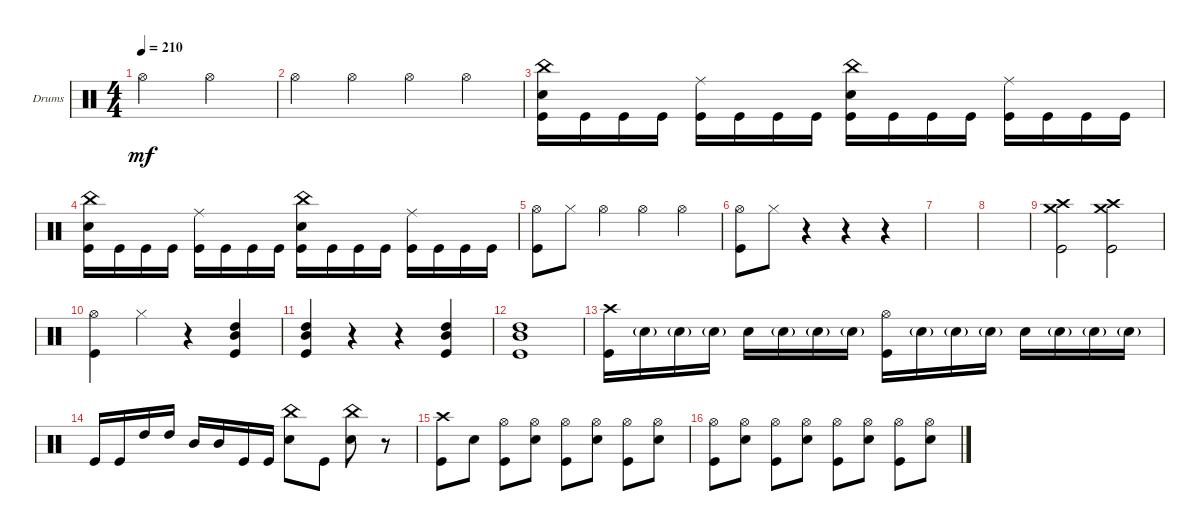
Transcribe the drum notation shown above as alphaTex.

\bracketExtendMode groupsimilarinstruments
\firstSystemTrackNameOrientation horizontal
\otherSystemsTrackNameOrientation horizontal
\track ("Drumkit" "Drums") {instrument percussion}
\staff {score}
\articulation defaults
\ts (4 4)
\tempo 210
\clef neutral
\ks c "Hi-Hat (open)".2{dy mf} "Hi-Hat (open)".2
|
"Hi-Hat (open)".4 "Hi-Hat (open)".4 "Hi-Hat (open)".4 "Hi-Hat (open)".4 |
("Snare (hit) 2" "Kick (hit)" "China (hit)").16 "Kick (hit)".16 "Kick (hit)".16 "Kick (hit)".16 ("Kick (hit)" "Ride (middle)").16 "Kick (hit)".16 "Kick (hit)".16 "Kick (hit)".16 ("Kick (hit)" "Snare (hit) 2" "China (hit)").16 "Kick (hit)".16 "Kick (hit)".16 "Kick (hit)".16 ("Kick (hit)" "Ride (middle)").16 "Kick (hit)".16 "Kick (hit)".16 "Kick (hit)".16 |
("Snare (hit) 2" "Kick (hit)" "China (hit)").16 "Kick (hit)".16 "Kick (hit)".16 "Kick (hit)".16 ("Kick (hit)" "Ride (middle)").16 "Kick (hit)".16 "Kick (hit)".16 "Kick (hit)".16 ("Kick (hit)" "Snare (hit) 2" "China (hit)").16 "Kick (hit)".16 "Kick (hit)".16 "Kick (hit)".16 ("Kick (hit)" "Ride (middle)").16 "Kick (hit)".16 "Kick (hit)".16 "Kick (hit)".16 |
("Kick (hit)" "Hi-Hat (open)").8 "Hi-Hat (closed)".8 "Hi-Hat (open)".4 "Hi-Hat (open)".4 "Hi-Hat (open)".4 |
("Kick (hit)" "Hi-Hat (open)").8 "Hi-Hat (closed)".8 r.4 r.4 r.4 |
|
|
("Kick (hit)" "Crash medium (hit)" "Crash high (hit)").2 ("Kick (hit)" "Crash high (hit)" "Crash medium (hit)").2 |
("Kick (hit)" "Hi-Hat (open)").4 "Hi-Hat (closed)".4 r.4 ("Kick (hit)" "Mid Tom (hit)" "High Tom (hit)").4 |
("Kick (hit)" "High Tom (hit)" "Mid Tom (hit)").4 r.4 r.4 ("Kick (hit)" "Mid Tom (hit)" "High Tom (hit)").4 |
("Kick (hit)" "High Tom (hit)" "Mid Tom (hit)").1 |
("Kick (hit)" "Crash high (hit)").16 "Snare (hit) 2"{g}.16 "Snare (hit) 2"{g}.16 "Snare (hit) 2"{g}.16 "Snare (hit) 2".16 "Snare (hit) 2"{g}.16 "Snare (hit) 2"{g}.16 "Snare (hit) 2"{g}.16 ("Kick (hit)" "Hi-Hat (open)").16 "Snare (hit) 2"{g}.16 "Snare (hit) 2"{g}.16 "Snare (hit) 2"{g}.16 "Snare (hit) 2".16 "Snare (hit) 2"{g}.16 "Snare (hit) 2"{g}.16 "Snare (hit) 2"{g}.16 |
"Kick (hit)".16 "Kick (hit)".16 "High Tom (hit)".16 "High Tom (hit)".16 "Mid Tom (hit)".16 "Mid Tom (hit)".16 "Kick (hit)".16 "Kick (hit)".16 ("Snare (hit) 2" "China (hit)").8 "Kick (hit)".8 ("Snare (hit) 2" "China (hit)").8 r.8 |
("Kick (hit)" "Crash high (hit)").8 "Snare (hit) 2".8 ("Hi-Hat (open)" "Kick (hit)").8 ("Hi-Hat (open)" "Snare (hit) 2").8 ("Hi-Hat (open)" "Kick (hit)").8 ("Hi-Hat (open)" "Snare (hit) 2").8 ("Hi-Hat (open)" "Kick (hit)").8 ("Hi-Hat (open)" "Snare (hit) 2").8 |
("Hi-Hat (open)" "Kick (hit)").8 ("Hi-Hat (open)" "Snare (hit) 2").8 ("Hi-Hat (open)" "Kick (hit)").8 ("Hi-Hat (open)" "Snare (hit) 2").8 ("Hi-Hat (open)" "Kick (hit)").8 ("Hi-Hat (open)" "Snare (hit) 2").8 ("Hi-Hat (open)" "Kick (hit)").8 ("Hi-Hat (open)" "Snare (hit) 2").8
